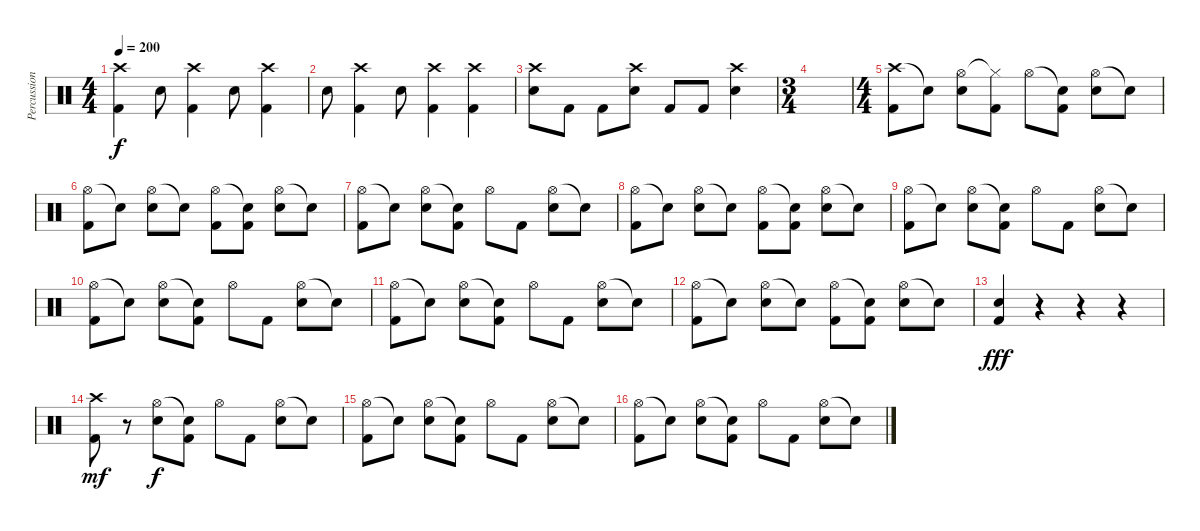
\track ("Percussions" "Percussion") {instrument percussion}
\staff {score}
\articulation defaults
\ts (4 4)
\tempo 200
\clef neutral
\ks c
("Crash high (hit)" "Kick (hit) 2").4{dy f} "Electric Snare (hit)".8 ("Crash high (hit)" "Kick (hit) 2").4 "Electric Snare (hit)".8 ("Crash high (hit)" "Kick (hit) 2").4 |
"Electric Snare (hit)".8 ("Crash high (hit)" "Kick (hit) 2").4 "Electric Snare (hit)".8 ("Crash high (hit)" "Kick (hit) 2").4 ("Crash high (hit)" "Kick (hit) 2").4 |
("Crash high (hit)" "Electric Snare (hit)").8 "Kick (hit) 2".8 "Kick (hit) 2".8 ("Crash high (hit)" "Electric Snare (hit)").8 "Kick (hit) 2".8 "Kick (hit) 2".8 ("Crash high (hit)" "Electric Snare (hit)").4 |
\ts (3 4)
|
\ts (4 4)
("Crash high (hit)" "Kick (hit) 2").8 "Snare (hit)"{t}.8 ("Hi-Hat (open)" "Electric Snare (hit)").8 ("Hi-Hat (closed)"{t} "Kick (hit) 2").8 "Hi-Hat (open)".8 ("Snare (hit)"{t} "Kick (hit) 2").8 ("Hi-Hat (open)" "Electric Snare (hit)").8 "Snare (hit)"{t}.8 |
("Hi-Hat (open)" "Kick (hit) 2").8 "Snare (hit)"{t}.8 ("Hi-Hat (open)" "Electric Snare (hit)").8 "Snare (hit)"{t}.8 ("Hi-Hat (open)" "Kick (hit) 2").8 ("Snare (hit)"{t} "Kick (hit) 2").8 ("Hi-Hat (open)" "Electric Snare (hit)").8 "Snare (hit)"{t}.8 |
("Hi-Hat (open)" "Kick (hit) 2").8 "Snare (hit)"{t}.8 ("Hi-Hat (open)" "Electric Snare (hit)").8 ("Snare (hit)"{t} "Kick (hit) 2").8 "Hi-Hat (open)".8 "Kick (hit) 2".8 ("Hi-Hat (open)" "Electric Snare (hit)").8 "Snare (hit)"{t}.8 |
("Hi-Hat (open)" "Kick (hit) 2").8 "Snare (hit)"{t}.8 ("Hi-Hat (open)" "Electric Snare (hit)").8 "Snare (hit)"{t}.8 ("Hi-Hat (open)" "Kick (hit) 2").8 ("Snare (hit)"{t} "Kick (hit) 2").8 ("Hi-Hat (open)" "Electric Snare (hit)").8 "Snare (hit)"{t}.8 |
("Hi-Hat (open)" "Kick (hit) 2").8 "Snare (hit)"{t}.8 ("Hi-Hat (open)" "Electric Snare (hit)").8 ("Snare (hit)"{t} "Kick (hit) 2").8 "Hi-Hat (open)".8 "Kick (hit) 2".8 ("Hi-Hat (open)" "Electric Snare (hit)").8 "Snare (hit)"{t}.8 |
("Hi-Hat (open)" "Kick (hit) 2").8 "Snare (hit)"{t}.8 ("Hi-Hat (open)" "Electric Snare (hit)").8 ("Snare (hit)"{t} "Kick (hit) 2").8 "Hi-Hat (open)".8 "Kick (hit) 2".8 ("Hi-Hat (open)" "Electric Snare (hit)").8 "Snare (hit)"{t}.8 |
("Hi-Hat (open)" "Kick (hit) 2").8 "Snare (hit)"{t}.8 ("Hi-Hat (open)" "Electric Snare (hit)").8 ("Snare (hit)"{t} "Kick (hit) 2").8 "Hi-Hat (open)".8 "Kick (hit) 2".8 ("Hi-Hat (open)" "Electric Snare (hit)").8 "Snare (hit)"{t}.8 |
("Hi-Hat (open)" "Kick (hit) 2").8 "Snare (hit)"{t}.8 ("Hi-Hat (open)" "Electric Snare (hit)").8 "Snare (hit)"{t}.8 ("Hi-Hat (open)" "Kick (hit) 2").8 ("Snare (hit)"{t} "Kick (hit) 2").8 ("Hi-Hat (open)" "Electric Snare (hit)").8 "Snare (hit)"{t}.8 |
("Electric Snare (hit)" "Kick (hit) 2").4{dy fff} r.4 r.4 r.4 |
("Crash high (hit)" "Kick (hit) 2").8{dy mf} r.8 ("Hi-Hat (open)" "Electric Snare (hit)").8{dy f} ("Snare (hit)"{t} "Kick (hit) 2").8 "Hi-Hat (open)".8 "Kick (hit) 2".8 ("Hi-Hat (open)" "Electric Snare (hit)").8 "Snare (hit)"{t}.8 |
("Hi-Hat (open)" "Kick (hit) 2").8 "Snare (hit)"{t}.8 ("Hi-Hat (open)" "Electric Snare (hit)").8 ("Snare (hit)"{t} "Kick (hit) 2").8 "Hi-Hat (open)".8 "Kick (hit) 2".8 ("Hi-Hat (open)" "Electric Snare (hit)").8 "Snare (hit)"{t}.8 |
("Hi-Hat (open)" "Kick (hit) 2").8 "Snare (hit)"{t}.8 ("Hi-Hat (open)" "Electric Snare (hit)").8 ("Snare (hit)"{t} "Kick (hit) 2").8 "Hi-Hat (open)".8 "Kick (hit) 2".8 ("Hi-Hat (open)" "Electric Snare (hit)").8 "Snare (hit)"{t}.8
